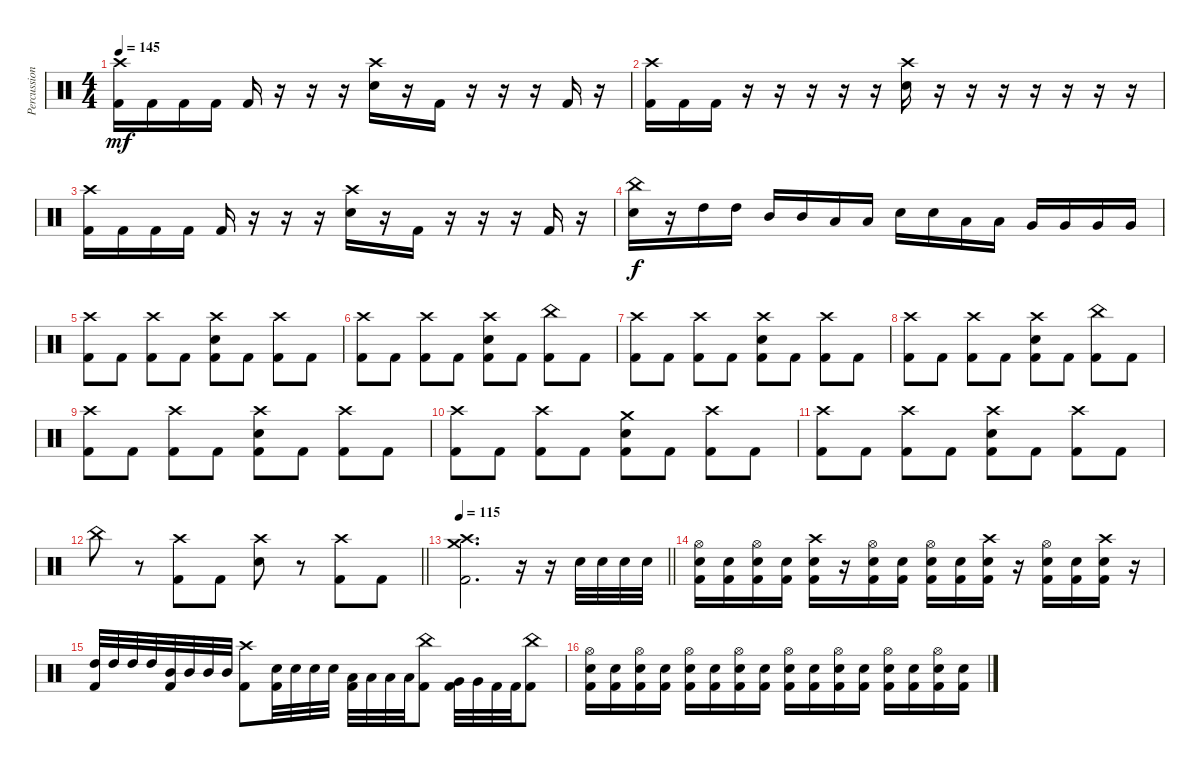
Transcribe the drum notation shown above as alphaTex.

\track ("Percussion" "Percussion") {instrument percussion}
\staff {score}
\articulation defaults
\ts (4 4)
\tempo 145
\clef neutral
\ks c
("Crash high (hit)" "Kick (hit) 2").16{dy mf} "Kick (hit) 2".16 "Kick (hit) 2".16 "Kick (hit) 2".16 "Kick (hit) 2".16 r.16 r.16 r.16 ("Crash high (hit)" "Snare (hit) 2").16 r.16 "Kick (hit) 2".16 r.16 r.16 r.16 "Kick (hit) 2".16 r.16 |
("Crash high (hit)" "Kick (hit) 2").16 "Kick (hit) 2".16 "Kick (hit) 2".16 r.16 r.16 r.16 r.16 r.16 ("Crash high (hit)" "Snare (hit) 2").16 r.16 r.16 r.16 r.16 r.16 r.16 r.16 |
("Crash high (hit)" "Kick (hit) 2").16 "Kick (hit) 2".16 "Kick (hit) 2".16 "Kick (hit) 2".16 "Kick (hit) 2".16 r.16 r.16 r.16 ("Crash high (hit)" "Snare (hit) 2").16 r.16 "Kick (hit) 2".16 r.16 r.16 r.16 "Kick (hit) 2".16 r.16 |
("China (hit)" "Snare (hit) 2").16{dy f} r.16 "High Tom (hit)".16 "High Tom (hit)".16 "Mid Tom (hit)".16 "Mid Tom (hit)".16 "Low Tom (hit)".16 "Low Tom (hit)".16 "Snare (hit) 2".16 "Snare (hit) 2".16 "Low Tom (hit)".16 "Low Tom (hit)".16 "Very Low Tom (hit)".16 "Very Low Tom (hit)".16 "Very Low Tom (hit)".16 "Very Low Tom (hit)".16 |
("Crash high (hit)" "Kick (hit) 2").8 "Kick (hit) 2".8 ("Crash high (hit)" "Kick (hit) 2").8 "Kick (hit) 2".8 ("Crash high (hit)" "Snare (hit) 2" "Kick (hit) 2").8 "Kick (hit) 2".8 ("Crash high (hit)" "Kick (hit) 2").8 "Kick (hit) 2".8 |
("Crash high (hit)" "Kick (hit) 2").8 "Kick (hit) 2".8 ("Crash high (hit)" "Kick (hit) 2").8 "Kick (hit) 2".8 ("Crash high (hit)" "Snare (hit) 2" "Kick (hit) 2").8 "Kick (hit) 2".8 ("China (hit)" "Kick (hit) 2").8 "Kick (hit) 2".8 |
("Crash high (hit)" "Kick (hit) 2").8 "Kick (hit) 2".8 ("Crash high (hit)" "Kick (hit) 2").8 "Kick (hit) 2".8 ("Crash high (hit)" "Snare (hit) 2" "Kick (hit) 2").8 "Kick (hit) 2".8 ("Crash high (hit)" "Kick (hit) 2").8 "Kick (hit) 2".8 |
("Crash high (hit)" "Kick (hit) 2").8 "Kick (hit) 2".8 ("Crash high (hit)" "Kick (hit) 2").8 "Kick (hit) 2".8 ("Crash high (hit)" "Snare (hit) 2" "Kick (hit) 2").8 "Kick (hit) 2".8 ("China (hit)" "Kick (hit) 2").8 "Kick (hit) 2".8 |
("Crash high (hit)" "Kick (hit) 2").8 "Kick (hit) 2".8 ("Crash high (hit)" "Kick (hit) 2").8 "Kick (hit) 2".8 ("Crash high (hit)" "Snare (hit) 2" "Kick (hit) 2").8 "Kick (hit) 2".8 ("Crash high (hit)" "Kick (hit) 2").8 "Kick (hit) 2".8 |
("Crash high (hit)" "Kick (hit) 2").8 "Kick (hit) 2".8 ("Crash high (hit)" "Kick (hit) 2").8 "Kick (hit) 2".8 ("Crash medium (hit)" "Snare (hit) 2" "Kick (hit) 2").8 "Kick (hit) 2".8 ("Crash high (hit)" "Kick (hit) 2").8 "Kick (hit) 2".8 |
("Crash high (hit)" "Kick (hit) 2").8 "Kick (hit) 2".8 ("Crash high (hit)" "Kick (hit) 2").8 "Kick (hit) 2".8 ("Crash high (hit)" "Snare (hit) 2" "Kick (hit) 2").8 "Kick (hit) 2".8 ("Crash high (hit)" "Kick (hit) 2").8 "Kick (hit) 2".8 |
\barLineRight lightlight "China (hit)".8
r.8 ("Crash high (hit)" "Kick (hit) 2").8 "Kick (hit) 2".8 ("Crash high (hit)" "Snare (hit) 2").8 r.8 ("Crash high (hit)" "Kick (hit) 2").8 "Kick (hit) 2".8 |
\section ("" "")
\tempo 115
\barLineRight lightlight
("Crash high (hit)" "Crash medium (hit)" "Kick (hit) 2").2{d} r.16 r.16 "Snare (hit) 2".32 "Snare (hit) 2".32 "Snare (hit) 2".32 "Snare (hit) 2".32 |
\section ("" "")
("Hi-Hat (open)" "Snare (hit) 2" "Kick (hit) 2").16 ("Snare (hit) 2" "Kick (hit) 2").16 ("Hi-Hat (open)" "Snare (hit) 2" "Kick (hit) 2").16 ("Snare (hit) 2" "Kick (hit) 2").16 ("Crash high (hit)" "Snare (hit) 2" "Kick (hit) 2").16 r.16 ("Hi-Hat (open)" "Snare (hit) 2" "Kick (hit) 2").16 ("Snare (hit) 2" "Kick (hit) 2").16 ("Hi-Hat (open)" "Snare (hit) 2" "Kick (hit) 2").16 ("Snare (hit) 2" "Kick (hit) 2").16 ("Crash high (hit)" "Snare (hit) 2" "Kick (hit) 2").16 r.16 ("Hi-Hat (open)" "Snare (hit) 2" "Kick (hit) 2").16 ("Snare (hit) 2" "Kick (hit) 2").16 ("Crash high (hit)" "Snare (hit) 2" "Kick (hit) 2").16 r.16 |
("High Tom (hit)" "Kick (hit) 2").32 "High Tom (hit)".32 "High Tom (hit)".32 "High Tom (hit)".32 ("Mid Tom (hit)" "Kick (hit) 2").32 "Mid Tom (hit)".32 "Mid Tom (hit)".32 "Mid Tom (hit)".32 ("Crash high (hit)" "Kick (hit) 2").8 ("Snare (hit) 2" "Kick (hit) 2").32 "Snare (hit) 2".32 "Snare (hit) 2".32 "Snare (hit) 2".32 ("Low Tom (hit)" "Kick (hit) 2").32 "Low Tom (hit)".32 "Low Tom (hit)".32 "Low Tom (hit)".32 ("China (hit)" "Kick (hit) 2").8 ("Very Low Tom (hit)" "Kick (hit) 2").32 "Very Low Tom (hit)".32 "Kick (hit) 2".32 "Kick (hit) 2".32 ("China (hit)" "Kick (hit) 2").8 |
("Hi-Hat (open)" "Snare (hit) 2" "Kick (hit) 2").16 ("Snare (hit) 2" "Kick (hit) 2").16 ("Hi-Hat (open)" "Snare (hit) 2" "Kick (hit) 2").16 ("Snare (hit) 2" "Kick (hit) 2").16 ("Hi-Hat (open)" "Snare (hit) 2" "Kick (hit) 2").16 ("Snare (hit) 2" "Kick (hit) 2").16 ("Hi-Hat (open)" "Snare (hit) 2" "Kick (hit) 2").16 ("Snare (hit) 2" "Kick (hit) 2").16 ("Hi-Hat (open)" "Snare (hit) 2" "Kick (hit) 2").16 ("Snare (hit) 2" "Kick (hit) 2").16 ("Hi-Hat (open)" "Snare (hit) 2" "Kick (hit) 2").16 ("Snare (hit) 2" "Kick (hit) 2").16 ("Hi-Hat (open)" "Snare (hit) 2" "Kick (hit) 2").16 ("Snare (hit) 2" "Kick (hit) 2").16 ("Hi-Hat (open)" "Snare (hit) 2" "Kick (hit) 2").16 ("Snare (hit) 2" "Kick (hit) 2").16
